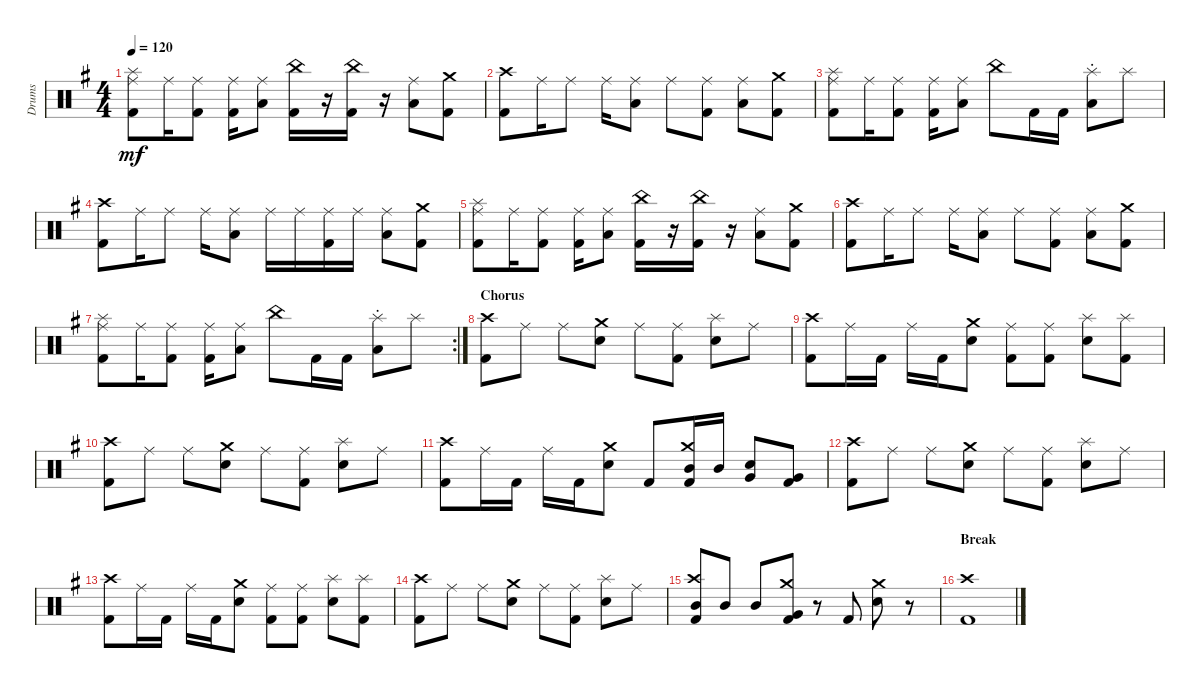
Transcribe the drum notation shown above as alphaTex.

\track ("Drums" "Drums") {instrument percussion}
\staff {score}
\articulation defaults
\ts (4 4)
\tempo 120
\clef neutral
\ks g
("Kick (hit) 2" "Ride (middle)" "Splash (hit)").8{dy mf} "Ride (middle)".16 ("Kick (hit) 2" "Ride (middle)").8 ("Kick (hit) 2" "Ride (middle)").16 ("Low Floor Tom (hit)" "Ride (middle)").8 ("Kick (hit) 2" "China (choke)").16 r.16 ("Kick (hit) 2" "China (choke)").16 r.16 ("Low Floor Tom (hit)" "Ride (middle)").8 ("Kick (hit) 2" "Crash medium (hit)").8 |
("Kick (hit) 2" "Crash high (hit)").8 "Ride (middle)".16 "Ride (middle)".8 "Ride (middle)".16 ("Low Floor Tom (hit)" "Ride (middle)").8 "Ride (middle)".8 ("Kick (hit) 2" "Ride (middle)").8 ("Low Floor Tom (hit)" "Ride (middle)").8 ("Kick (hit) 2" "Crash medium (hit)").8 |
("Kick (hit) 2" "Splash (hit)" "Ride (middle)").8 "Ride (middle)".16 ("Kick (hit) 2" "Ride (middle)").8 ("Kick (hit) 2" "Ride (middle)").16 ("Low Floor Tom (hit)" "Ride (middle)").8 "China (choke)".8 "Kick (hit) 2".16 "Kick (hit) 2".16 ("Low Floor Tom (hit)" "Splash (choke)").8 "Splash (hit)".8 |
("Kick (hit) 2" "Crash high (hit)").8 "Ride (middle)".16 "Ride (middle)".8 "Ride (middle)".16 ("Low Floor Tom (hit)" "Ride (middle)").8 "Ride (middle)".16 "Ride (middle)".16 ("Kick (hit) 2" "Ride (middle)").16 "Ride (middle)".16 ("Low Floor Tom (hit)" "Ride (middle)").8 ("Kick (hit) 2" "Crash medium (hit)").8 |
("Kick (hit) 2" "Ride (middle)" "Splash (hit)").8 "Ride (middle)".16 ("Kick (hit) 2" "Ride (middle)").8 ("Kick (hit) 2" "Ride (middle)").16 ("Low Floor Tom (hit)" "Ride (middle)").8 ("Kick (hit) 2" "China (choke)").16 r.16 ("Kick (hit) 2" "China (choke)").16 r.16 ("Low Floor Tom (hit)" "Ride (middle)").8 ("Kick (hit) 2" "Crash medium (hit)").8 |
("Kick (hit) 2" "Crash high (hit)").8 "Ride (middle)".16 "Ride (middle)".8 "Ride (middle)".16 ("Low Floor Tom (hit)" "Ride (middle)").8 "Ride (middle)".8 ("Kick (hit) 2" "Ride (middle)").8 ("Low Floor Tom (hit)" "Ride (middle)").8 ("Kick (hit) 2" "Crash medium (hit)").8 |
\rc 2
("Kick (hit) 2" "Splash (hit)" "Ride (middle)").8 "Ride (middle)".16 ("Kick (hit) 2" "Ride (middle)").8 ("Kick (hit) 2" "Ride (middle)").16 ("Low Floor Tom (hit)" "Ride (middle)").8 "China (choke)".8 "Kick (hit) 2".16 "Kick (hit) 2".16 ("Low Floor Tom (hit)" "Splash (choke)").8 "Splash (hit)".8 |
\section ("" "Chorus")
("Crash high (hit)" "Kick (hit) 2").8 "Ride (middle)".8 "Ride (middle)".8 ("Crash medium (hit)" "Snare (hit) 2").8 "Ride (middle)".8 ("Ride (middle)" "Kick (hit) 2").8 ("Splash (hit)" "Snare (hit) 2").8 "Ride (middle)".8 |
("Crash high (hit)" "Kick (hit) 2").8 "Ride (middle)".16 "Kick (hit) 2".16 "Ride (middle)".16 "Kick (hit) 2".16 ("Crash medium (hit)" "Snare (hit) 2").8 ("Ride (middle)" "Kick (hit) 2").8 ("Ride (middle)" "Kick (hit) 2").8 ("Splash (hit)" "Snare (hit) 2").8 ("Splash (hit)" "Kick (hit) 2").8 |
("Crash high (hit)" "Kick (hit) 2").8 "Ride (middle)".8 "Ride (middle)".8 ("Crash medium (hit)" "Snare (hit) 2").8 "Ride (middle)".8 ("Ride (middle)" "Kick (hit) 2").8 ("Splash (hit)" "Snare (hit) 2").8 "Ride (middle)".8 |
("Crash high (hit)" "Kick (hit) 2").8 "Ride (middle)".16 "Kick (hit) 2".16 "Ride (middle)".16 "Kick (hit) 2".16 ("Crash medium (hit)" "Snare (hit) 2").8 "Kick (hit) 2".8 ("Crash medium (hit)" "Kick (hit) 2" "Mid Tom (hit)").16 "Mid Tom (hit)".16 ("Snare (hit) 2" "Very Low Tom (hit)").8 ("Kick (hit) 2" "Very Low Tom (hit)").8 |
("Crash high (hit)" "Kick (hit) 2").8 "Ride (middle)".8 "Ride (middle)".8 ("Crash medium (hit)" "Snare (hit) 2").8 "Ride (middle)".8 ("Ride (middle)" "Kick (hit) 2").8 ("Splash (hit)" "Snare (hit) 2").8 "Ride (middle)".8 |
("Crash high (hit)" "Kick (hit) 2").8 "Ride (middle)".16 "Kick (hit) 2".16 "Ride (middle)".16 "Kick (hit) 2".16 ("Crash medium (hit)" "Snare (hit) 2").8 ("Ride (middle)" "Kick (hit) 2").8 ("Ride (middle)" "Kick (hit) 2").8 ("Splash (hit)" "Snare (hit) 2").8 ("Splash (hit)" "Kick (hit) 2").8 |
("Crash high (hit)" "Kick (hit) 2").8 "Ride (middle)".8 "Ride (middle)".8 ("Crash medium (hit)" "Snare (hit) 2").8 "Ride (middle)".8 ("Ride (middle)" "Kick (hit) 2").8 ("Splash (hit)" "Snare (hit) 2").8 "Ride (middle)".8 |
("Crash high (hit)" "Kick (hit) 2" "Mid Tom (hit)").8 "Mid Tom (hit)".8 "Mid Tom (hit)".8 ("Crash medium (hit)" "Very Low Tom (hit)" "Kick (hit) 2").8 r.8 "Kick (hit) 2".8 ("Crash medium (hit)" "Snare (hit) 2").8 r.8 |
\section ("" "Break")
("Crash high (hit)" "Kick (hit) 2").1
